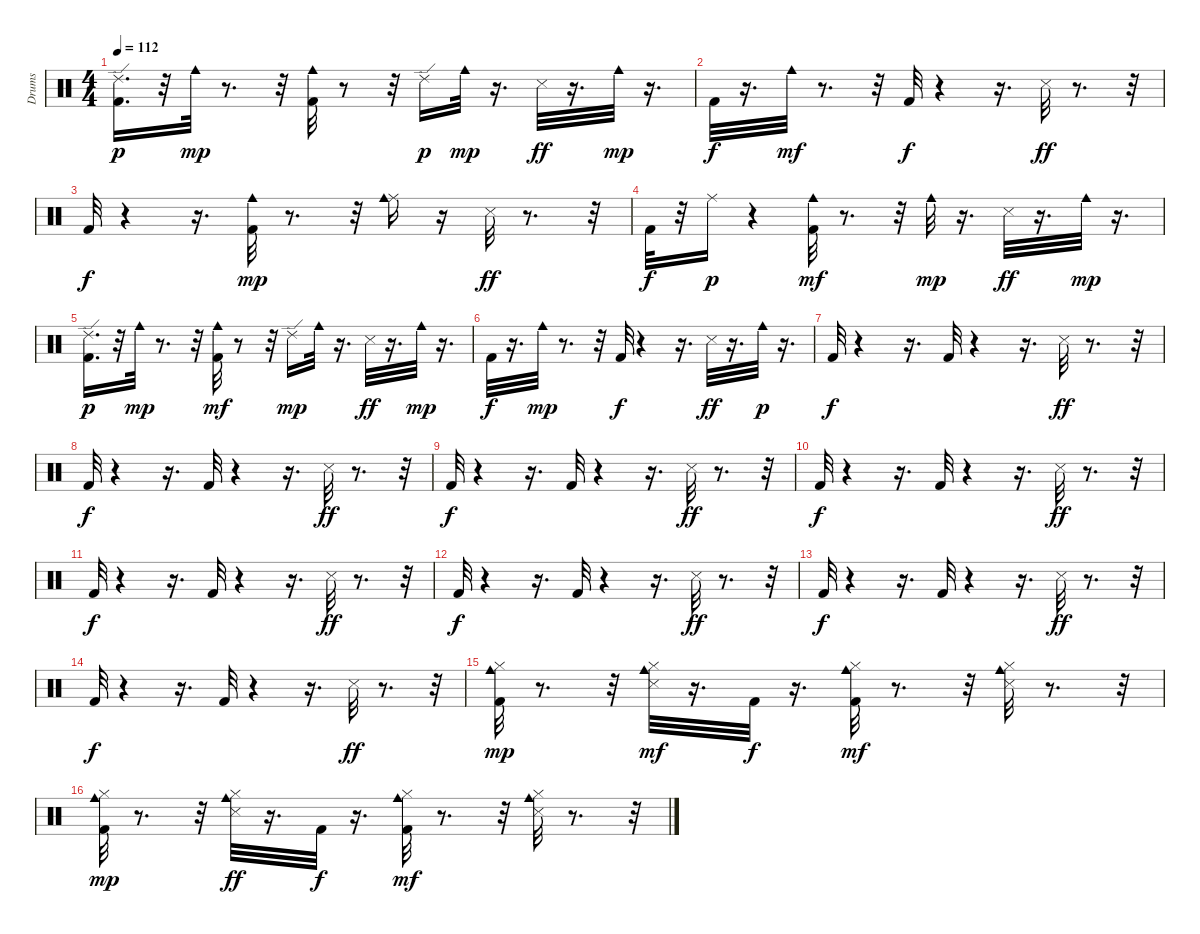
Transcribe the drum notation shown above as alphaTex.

\track ("Drums" "Drums") {instrument percussion}
\staff {score}
\articulation defaults
\ts (4 4)
\tempo 112
\clef neutral
\ks c
("Ride (edge) 2" "Kick (hit) 2").16{d dy p} r.32 "Cowbell medium (hit)".32{dy mp} r.8{d} r.32 ("Kick (hit) 2" "Cowbell medium (hit)").32 r.8 r.32 "Ride (edge) 2".16{dy p} "Cowbell medium (hit)".32{dy mp} r.16{d} "Snare (side stick) 3".32{dy ff} r.16{d} "Cowbell medium (hit)".32{dy mp} r.16{d} |
"Kick (hit) 2".32{dy f} r.16{d} "Cowbell medium (hit)".32{dy mf} r.8{d} r.32 "Kick (hit) 2".32{dy f} r.4 r.16{d} "Snare (side stick) 3".32{dy ff} r.8{d} r.32 |
"Kick (hit) 2".32{dy f} r.4 r.16{d} ("Kick (hit) 2" "Cowbell medium (hit)").32{dy mp} r.8{d} r.32 ("Ride (middle)" "Cowbell medium (hit)").16 r.16 "Snare (side stick) 3".32{dy ff} r.8{d} r.32 |
"Kick (hit) 2".32{dy f} r.32 "Ride (middle)".16{dy p} r.4 ("Kick (hit) 2" "Cowbell medium (hit)").32{dy mf} r.8{d} r.32 "Cowbell medium (hit)".32{dy mp} r.16{d} "Snare (side stick) 3".32{dy ff} r.16{d} "Cowbell medium (hit)".32{dy mp} r.16{d} |
("Ride (edge) 2" "Kick (hit) 2").16{d dy p} r.32 "Cowbell medium (hit)".32{dy mp} r.8{d} r.32 ("Kick (hit) 2" "Cowbell medium (hit)").32{dy mf} r.8 r.32 "Ride (edge) 2".16{dy mp} "Cowbell medium (hit)".32 r.16{d} "Snare (side stick) 3".32{dy ff} r.16{d} "Cowbell medium (hit)".32{dy mp} r.16{d} |
"Kick (hit) 2".32{dy f} r.16{d} "Cowbell medium (hit)".32{dy mp} r.8{d} r.32 "Kick (hit) 2".32{dy f} r.4 r.16{d} "Snare (side stick) 3".32{dy ff} r.16{d} "Cowbell medium (hit)".32{dy p} r.16{d} |
"Kick (hit) 2".32{dy f} r.4 r.16{d} "Kick (hit) 2".32 r.4 r.16{d} "Snare (side stick) 3".32{dy ff} r.8{d} r.32 |
"Kick (hit) 2".32{dy f} r.4 r.16{d} "Kick (hit) 2".32 r.4 r.16{d} "Snare (side stick) 3".32{dy ff} r.8{d} r.32 |
"Kick (hit) 2".32{dy f} r.4 r.16{d} "Kick (hit) 2".32 r.4 r.16{d} "Snare (side stick) 3".32{dy ff} r.8{d} r.32 |
"Kick (hit) 2".32{dy f} r.4 r.16{d} "Kick (hit) 2".32 r.4 r.16{d} "Snare (side stick) 3".32{dy ff} r.8{d} r.32 |
"Kick (hit) 2".32{dy f} r.4 r.16{d} "Kick (hit) 2".32 r.4 r.16{d} "Snare (side stick) 3".32{dy ff} r.8{d} r.32 |
"Kick (hit) 2".32{dy f} r.4 r.16{d} "Kick (hit) 2".32 r.4 r.16{d} "Snare (side stick) 3".32{dy ff} r.8{d} r.32 |
"Kick (hit) 2".32{dy f} r.4 r.16{d} "Kick (hit) 2".32 r.4 r.16{d} "Snare (side stick) 3".32{dy ff} r.8{d} r.32 |
"Kick (hit) 2".32{dy f} r.4 r.16{d} "Kick (hit) 2".32 r.4 r.16{d} "Snare (side stick) 3".32{dy ff} r.8{d} r.32 |
("Hi-Hat (closed)" "Kick (hit) 2" "Cowbell medium (hit)").32{dy mp} r.8{d} r.32 ("Hi-Hat (closed)" "Snare (side stick) 3" "Cowbell medium (hit)").32{dy mf} r.16{d} "Kick (hit) 2".32{dy f} r.16{d} ("Hi-Hat (closed)" "Kick (hit) 2" "Cowbell medium (hit)").32{dy mf} r.8{d} r.32 ("Hi-Hat (closed)" "Snare (side stick) 3" "Cowbell medium (hit)").32 r.8{d} r.32 |
("Hi-Hat (closed)" "Kick (hit) 2" "Cowbell medium (hit)").32{dy mp} r.8{d} r.32 ("Hi-Hat (closed)" "Snare (side stick) 3" "Cowbell medium (hit)").32{dy ff} r.16{d} "Kick (hit) 2".32{dy f} r.16{d} ("Hi-Hat (closed)" "Kick (hit) 2" "Cowbell medium (hit)").32{dy mf} r.8{d} r.32 ("Hi-Hat (closed)" "Snare (side stick) 3" "Cowbell medium (hit)").32 r.8{d} r.32
